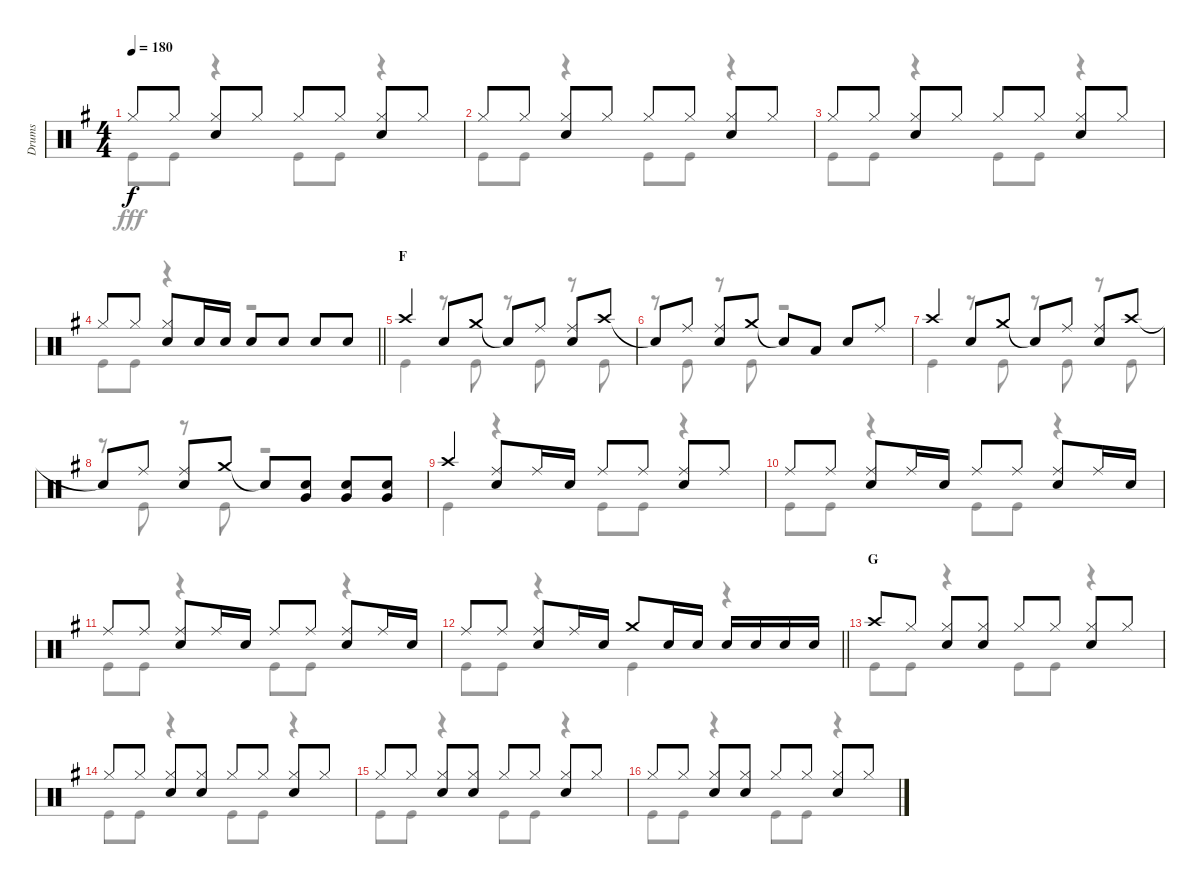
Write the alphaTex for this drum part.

\track ("Drums" "Drums") {instrument percussion}
\staff {score}
\articulation defaults
\voice
\ts (4 4)
\tempo 180
\clef neutral
\ks g "Hi-Hat (closed)".8{dy f} "Hi-Hat (closed)".8
("Hi-Hat (closed)" "Snare (hit) 2").8 "Hi-Hat (closed)".8 "Hi-Hat (closed)".8 "Hi-Hat (closed)".8 ("Hi-Hat (closed)" "Snare (hit) 2").8 "Hi-Hat (closed)".8 |
"Hi-Hat (closed)".8 "Hi-Hat (closed)".8 ("Hi-Hat (closed)" "Snare (hit) 2").8 "Hi-Hat (closed)".8 "Hi-Hat (closed)".8 "Hi-Hat (closed)".8 ("Hi-Hat (closed)" "Snare (hit) 2").8 "Hi-Hat (closed)".8 |
"Hi-Hat (closed)".8 "Hi-Hat (closed)".8 ("Hi-Hat (closed)" "Snare (hit) 2").8 "Hi-Hat (closed)".8 "Hi-Hat (closed)".8 "Hi-Hat (closed)".8 ("Hi-Hat (closed)" "Snare (hit) 2").8 "Hi-Hat (closed)".8 |
\barLineRight lightlight "Hi-Hat (closed)".8 "Hi-Hat (closed)".8
("Hi-Hat (closed)" "Snare (hit) 2").8 "Snare (hit) 2".16 "Snare (hit) 2".16 "Snare (hit) 2".8 "Snare (hit) 2".8 "Snare (hit) 2".8 "Snare (hit) 2".8 |
\section ("" "F")
"Crash high (hit)".4 "Snare (hit) 2".8 "Crash medium (hit)".8 "Snare (hit)"{t}.8 "Ride (middle)".8 ("Ride (middle)" "Snare (hit) 2").8 "Crash high (hit)".8 |
"Snare (hit)"{t}.8 "Ride (middle)".8 ("Ride (middle)" "Snare (hit) 2").8 "Crash medium (hit)".8 "Snare (hit)"{t}.8 "Low Tom (hit)".8 "Snare (hit) 2".8 "Ride (middle)".8 |
"Crash high (hit)".4 "Snare (hit) 2".8 "Crash medium (hit)".8 "Snare (hit)"{t}.8 "Ride (middle)".8 ("Ride (middle)" "Snare (hit) 2").8 "Crash high (hit)".8 |
"Snare (hit)"{t}.8 "Ride (middle)".8 ("Ride (middle)" "Snare (hit) 2").8 "Crash medium (hit)".8 "Snare (hit)"{t}.8 ("Snare (hit) 2" "Very Low Tom (hit)").8 ("Snare (hit) 2" "Very Low Tom (hit)").8 ("Snare (hit) 2" "Very Low Tom (hit)").8 |
"Crash high (hit)".4 ("Ride (middle)" "Snare (hit) 2").8 "Ride (middle)".16 "Snare (hit) 2".16 "Ride (middle)".8 "Ride (middle)".8 ("Ride (middle)" "Snare (hit) 2").8 "Ride (middle)".8 |
"Ride (middle)".8 "Ride (middle)".8 ("Ride (middle)" "Snare (hit) 2").8 "Ride (middle)".16 "Snare (hit) 2".16 "Ride (middle)".8 "Ride (middle)".8 ("Ride (middle)" "Snare (hit) 2").8 "Ride (middle)".16 "Snare (hit) 2".16 |
"Ride (middle)".8 "Ride (middle)".8 ("Ride (middle)" "Snare (hit) 2").8 "Ride (middle)".16 "Snare (hit) 2".16 "Ride (middle)".8 "Ride (middle)".8 ("Ride (middle)" "Snare (hit) 2").8 "Ride (middle)".16 "Snare (hit) 2".16 |
\barLineRight lightlight "Ride (middle)".8 "Ride (middle)".8
("Ride (middle)" "Snare (hit) 2").8 "Ride (middle)".16 "Snare (hit) 2".16 "Crash medium (hit)".8 "Snare (hit) 2".16 "Snare (hit) 2".16 "Snare (hit) 2".16 "Snare (hit) 2".16 "Snare (hit) 2".16 "Snare (hit) 2".16 |
\section ("" "G")
"Crash high (hit)".8 "Hi-Hat (closed)".8 ("Hi-Hat (closed)" "Snare (hit) 2").8 ("Hi-Hat (closed)" "Snare (hit) 2").8 "Hi-Hat (closed)".8 "Hi-Hat (closed)".8 ("Hi-Hat (closed)" "Snare (hit) 2").8 "Hi-Hat (closed)".8 |
"Hi-Hat (closed)".8 "Hi-Hat (closed)".8 ("Hi-Hat (closed)" "Snare (hit) 2").8 ("Hi-Hat (closed)" "Snare (hit) 2").8 "Hi-Hat (closed)".8 "Hi-Hat (closed)".8 ("Hi-Hat (closed)" "Snare (hit) 2").8 "Hi-Hat (closed)".8 |
"Hi-Hat (closed)".8 "Hi-Hat (closed)".8 ("Hi-Hat (closed)" "Snare (hit) 2").8 ("Hi-Hat (closed)" "Snare (hit) 2").8 "Hi-Hat (closed)".8 "Hi-Hat (closed)".8 ("Hi-Hat (closed)" "Snare (hit) 2").8 "Hi-Hat (closed)".8 |
"Hi-Hat (closed)".8 "Hi-Hat (closed)".8 ("Hi-Hat (closed)" "Snare (hit) 2").8 ("Hi-Hat (closed)" "Snare (hit) 2").8 "Hi-Hat (closed)".8 "Hi-Hat (closed)".8 ("Hi-Hat (closed)" "Snare (hit) 2").8 "Hi-Hat (closed)".8
\voice
\clef neutral
\ottava regular
\simile none
\ks g "Kick (hit)".8{dy fff} "Kick (hit)".8
r.4 "Kick (hit)".8 "Kick (hit)".8 r.4 |
"Kick (hit)".8 "Kick (hit)".8 r.4 "Kick (hit)".8 "Kick (hit)".8 r.4 |
"Kick (hit)".8 "Kick (hit)".8 r.4 "Kick (hit)".8 "Kick (hit)".8 r.4 |
\barLineRight lightlight "Kick (hit)".8 "Kick (hit)".8
r.4 r.2 |
"Kick (hit)".4 r.8 "Kick (hit)".8 r.8 "Kick (hit)".8 r.8 "Kick (hit)".8 |
r.8 "Kick (hit)".8 r.8 "Kick (hit)".8 r.2 |
"Kick (hit)".4 r.8 "Kick (hit)".8 r.8 "Kick (hit)".8 r.8 "Kick (hit)".8 |
r.8 "Kick (hit)".8 r.8 "Kick (hit)".8 r.2 |
"Kick (hit)".4 r.4 "Kick (hit)".8 "Kick (hit)".8 r.4 |
"Kick (hit)".8 "Kick (hit)".8 r.4 "Kick (hit)".8 "Kick (hit)".8 r.4 |
"Kick (hit)".8 "Kick (hit)".8 r.4 "Kick (hit)".8 "Kick (hit)".8 r.4 |
\barLineRight lightlight "Kick (hit)".8 "Kick (hit)".8
r.4 "Kick (hit)".4 r.4 |
"Kick (hit)".8 "Kick (hit)".8 r.4 "Kick (hit)".8 "Kick (hit)".8 r.4 |
"Kick (hit)".8 "Kick (hit)".8 r.4 "Kick (hit)".8 "Kick (hit)".8 r.4 |
"Kick (hit)".8 "Kick (hit)".8 r.4 "Kick (hit)".8 "Kick (hit)".8 r.4 |
"Kick (hit)".8 "Kick (hit)".8 r.4 "Kick (hit)".8 "Kick (hit)".8 r.4
